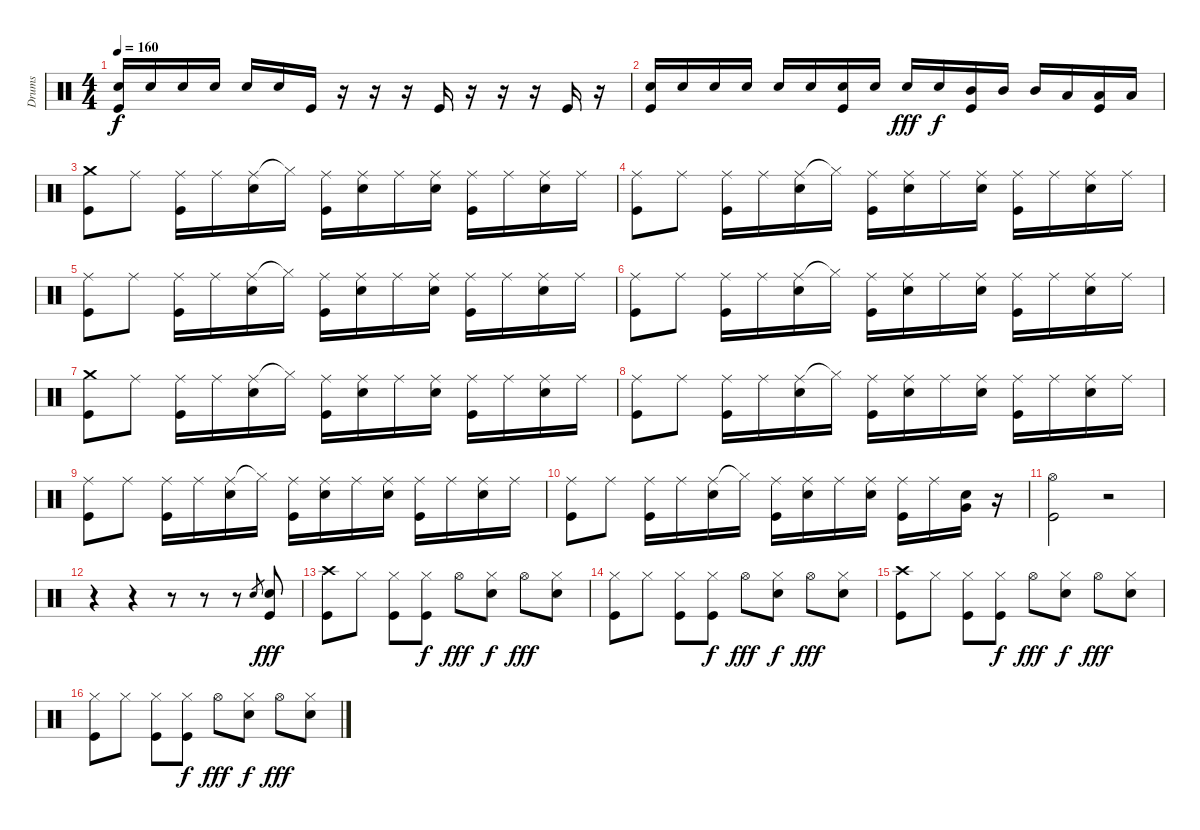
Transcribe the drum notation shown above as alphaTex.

\track ("Drums" "Drums") {instrument percussion}
\staff {score}
\articulation defaults
\ts (4 4)
\tempo 160
\clef neutral
\ks c
("Electric Snare (hit)" "Kick (hit)").16{dy f} "Electric Snare (hit)".16 "Electric Snare (hit)".16 "Electric Snare (hit)".16 "Electric Snare (hit)".16 "Electric Snare (hit)".16 "Kick (hit)".16 r.16 r.16 r.16 "Kick (hit)".16 r.16 r.16 r.16 "Kick (hit)".16 r.16 |
("Electric Snare (hit)" "Kick (hit)").16 "Electric Snare (hit)".16 "Electric Snare (hit)".16 "Electric Snare (hit)".16 "Electric Snare (hit)".16 "Electric Snare (hit)".16 ("Electric Snare (hit)" "Kick (hit)").16 "Electric Snare (hit)".16 "Electric Snare (hit)".16{dy fff} "Electric Snare (hit)".16{dy f} ("Mid Tom (hit)" "Kick (hit)").16 "Mid Tom (hit)".16 "Mid Tom (hit)".16 "Low Tom (hit)".16 ("Low Tom (hit)" "Kick (hit)").16 "Low Tom (hit)".16 |
("Crash medium (hit)" "Kick (hit)").8 "Ride (middle)".8 ("Ride (middle)" "Kick (hit)").16 "Ride (middle)".16 ("Ride (middle)" "Electric Snare (hit)").16 "Hi-Hat (closed)"{t}.16 ("Ride (middle)" "Kick (hit)").16 ("Ride (middle)" "Electric Snare (hit)").16 "Ride (middle)".16 ("Ride (middle)" "Electric Snare (hit)").16 ("Ride (middle)" "Kick (hit)").16 "Ride (middle)".16 ("Ride (middle)" "Electric Snare (hit)").16 "Ride (middle)".16 |
("Ride (middle)" "Kick (hit)").8 "Ride (middle)".8 ("Ride (middle)" "Kick (hit)").16 "Ride (middle)".16 ("Ride (middle)" "Electric Snare (hit)").16 "Hi-Hat (closed)"{t}.16 ("Ride (middle)" "Kick (hit)").16 ("Ride (middle)" "Electric Snare (hit)").16 "Ride (middle)".16 ("Ride (middle)" "Electric Snare (hit)").16 ("Ride (middle)" "Kick (hit)").16 "Ride (middle)".16 ("Ride (middle)" "Electric Snare (hit)").16 "Ride (middle)".16 |
("Ride (middle)" "Kick (hit)").8 "Ride (middle)".8 ("Ride (middle)" "Kick (hit)").16 "Ride (middle)".16 ("Ride (middle)" "Electric Snare (hit)").16 "Hi-Hat (closed)"{t}.16 ("Ride (middle)" "Kick (hit)").16 ("Ride (middle)" "Electric Snare (hit)").16 "Ride (middle)".16 ("Ride (middle)" "Electric Snare (hit)").16 ("Ride (middle)" "Kick (hit)").16 "Ride (middle)".16 ("Ride (middle)" "Electric Snare (hit)").16 "Ride (middle)".16 |
("Ride (middle)" "Kick (hit)").8 "Ride (middle)".8 ("Ride (middle)" "Kick (hit)").16 "Ride (middle)".16 ("Ride (middle)" "Electric Snare (hit)").16 "Hi-Hat (closed)"{t}.16 ("Ride (middle)" "Kick (hit)").16 ("Ride (middle)" "Electric Snare (hit)").16 "Ride (middle)".16 ("Ride (middle)" "Electric Snare (hit)").16 ("Ride (middle)" "Kick (hit)").16 "Ride (middle)".16 ("Ride (middle)" "Electric Snare (hit)").16 "Ride (middle)".16 |
("Crash medium (hit)" "Kick (hit)").8 "Ride (middle)".8 ("Ride (middle)" "Kick (hit)").16 "Ride (middle)".16 ("Ride (middle)" "Electric Snare (hit)").16 "Hi-Hat (closed)"{t}.16 ("Ride (middle)" "Kick (hit)").16 ("Ride (middle)" "Electric Snare (hit)").16 "Ride (middle)".16 ("Ride (middle)" "Electric Snare (hit)").16 ("Ride (middle)" "Kick (hit)").16 "Ride (middle)".16 ("Ride (middle)" "Electric Snare (hit)").16 "Ride (middle)".16 |
("Ride (middle)" "Kick (hit)").8 "Ride (middle)".8 ("Ride (middle)" "Kick (hit)").16 "Ride (middle)".16 ("Ride (middle)" "Electric Snare (hit)").16 "Hi-Hat (closed)"{t}.16 ("Ride (middle)" "Kick (hit)").16 ("Ride (middle)" "Electric Snare (hit)").16 "Ride (middle)".16 ("Ride (middle)" "Electric Snare (hit)").16 ("Ride (middle)" "Kick (hit)").16 "Ride (middle)".16 ("Ride (middle)" "Electric Snare (hit)").16 "Ride (middle)".16 |
("Ride (middle)" "Kick (hit)").8 "Ride (middle)".8 ("Ride (middle)" "Kick (hit)").16 "Ride (middle)".16 ("Ride (middle)" "Electric Snare (hit)").16 "Hi-Hat (closed)"{t}.16 ("Ride (middle)" "Kick (hit)").16 ("Ride (middle)" "Electric Snare (hit)").16 "Ride (middle)".16 ("Ride (middle)" "Electric Snare (hit)").16 ("Ride (middle)" "Kick (hit)").16 "Ride (middle)".16 ("Ride (middle)" "Electric Snare (hit)").16 "Ride (middle)".16 |
("Ride (middle)" "Kick (hit)").8 "Ride (middle)".8 ("Ride (middle)" "Kick (hit)").16 "Ride (middle)".16 ("Ride (middle)" "Electric Snare (hit)").16 "Hi-Hat (closed)"{t}.16 ("Ride (middle)" "Kick (hit)").16 ("Ride (middle)" "Electric Snare (hit)").16 "Ride (middle)".16 ("Ride (middle)" "Electric Snare (hit)").16 ("Ride (middle)" "Kick (hit)").16 "Ride (middle)".16 ("Very Low Tom (hit)" "Electric Snare (hit)").16 r.16 |
("Hi-Hat (open)" "Kick (hit)").2 r.2 |
r.4 r.4 r.8 r.8 r.8 "Electric Snare (hit)".8{gr} ("Electric Snare (hit)" "Kick (hit)").8{dy fff} |
("Crash high (hit)" "Kick (hit)").8 "Hi-Hat (closed)".8 ("Hi-Hat (closed)" "Kick (hit)").8 ("Hi-Hat (closed)" "Kick (hit)").8{dy f} "Hi-Hat (open)".8{dy fff} ("Hi-Hat (closed)" "Electric Snare (hit)").8{dy f} "Hi-Hat (open)".8{dy fff} ("Hi-Hat (closed)" "Electric Snare (hit)").8 |
("Hi-Hat (closed)" "Kick (hit)").8 "Hi-Hat (closed)".8 ("Hi-Hat (closed)" "Kick (hit)").8 ("Hi-Hat (closed)" "Kick (hit)").8{dy f} "Hi-Hat (open)".8{dy fff} ("Hi-Hat (closed)" "Electric Snare (hit)").8{dy f} "Hi-Hat (open)".8{dy fff} ("Hi-Hat (closed)" "Electric Snare (hit)").8 |
("Crash high (hit)" "Kick (hit)").8 "Hi-Hat (closed)".8 ("Hi-Hat (closed)" "Kick (hit)").8 ("Hi-Hat (closed)" "Kick (hit)").8{dy f} "Hi-Hat (open)".8{dy fff} ("Hi-Hat (closed)" "Electric Snare (hit)").8{dy f} "Hi-Hat (open)".8{dy fff} ("Hi-Hat (closed)" "Electric Snare (hit)").8 |
("Hi-Hat (closed)" "Kick (hit)").8 "Hi-Hat (closed)".8 ("Hi-Hat (closed)" "Kick (hit)").8 ("Hi-Hat (closed)" "Kick (hit)").8{dy f} "Hi-Hat (open)".8{dy fff} ("Hi-Hat (closed)" "Electric Snare (hit)").8{dy f} "Hi-Hat (open)".8{dy fff} ("Hi-Hat (closed)" "Electric Snare (hit)").8
